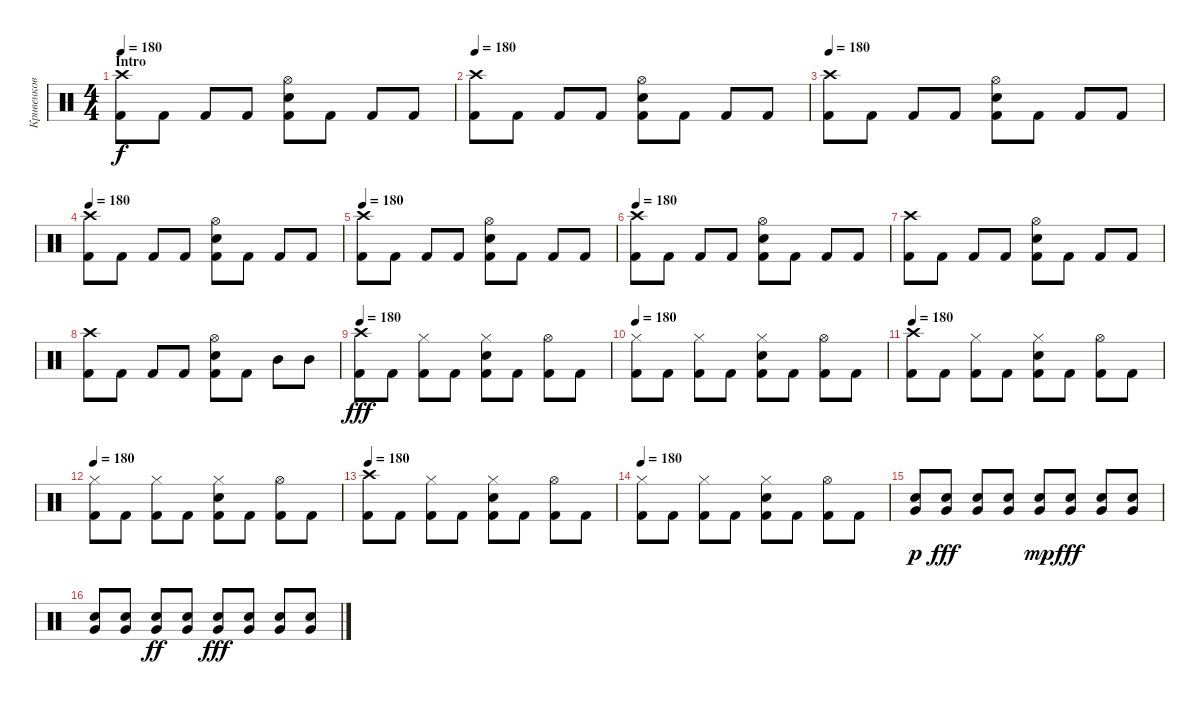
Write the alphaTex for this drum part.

\track ("Кривенков" "Кривенков") {instrument percussion}
\staff {score}
\articulation defaults
\ts (4 4)
\section ("" "Intro")
\tempo 180
\clef neutral
\ks c
("Crash high (hit)" "Kick (hit) 2").8{dy f} "Kick (hit) 2".8 "Kick (hit) 2".8 "Kick (hit) 2".8 ("Kick (hit) 2" "Snare (hit) 2" "Hi-Hat (open)").8 "Kick (hit) 2".8 "Kick (hit) 2".8 "Kick (hit) 2".8 |
\tempo 180
("Crash high (hit)" "Kick (hit) 2").8 "Kick (hit) 2".8 "Kick (hit) 2".8 "Kick (hit) 2".8 ("Kick (hit) 2" "Snare (hit) 2" "Hi-Hat (open)").8 "Kick (hit) 2".8 "Kick (hit) 2".8 "Kick (hit) 2".8 |
\tempo 180
("Crash high (hit)" "Kick (hit) 2").8 "Kick (hit) 2".8 "Kick (hit) 2".8 "Kick (hit) 2".8 ("Kick (hit) 2" "Snare (hit) 2" "Hi-Hat (open)").8 "Kick (hit) 2".8 "Kick (hit) 2".8 "Kick (hit) 2".8 |
\tempo 180
("Crash high (hit)" "Kick (hit) 2").8 "Kick (hit) 2".8 "Kick (hit) 2".8 "Kick (hit) 2".8 ("Kick (hit) 2" "Snare (hit) 2" "Hi-Hat (open)").8 "Kick (hit) 2".8 "Kick (hit) 2".8 "Kick (hit) 2".8 |
\tempo 180
("Crash high (hit)" "Kick (hit) 2").8 "Kick (hit) 2".8 "Kick (hit) 2".8 "Kick (hit) 2".8 ("Kick (hit) 2" "Snare (hit) 2" "Hi-Hat (open)").8 "Kick (hit) 2".8 "Kick (hit) 2".8 "Kick (hit) 2".8 |
\tempo 180
("Crash high (hit)" "Kick (hit) 2").8 "Kick (hit) 2".8 "Kick (hit) 2".8 "Kick (hit) 2".8 ("Kick (hit) 2" "Snare (hit) 2" "Hi-Hat (open)").8 "Kick (hit) 2".8 "Kick (hit) 2".8 "Kick (hit) 2".8 |
("Crash high (hit)" "Kick (hit) 2").8 "Kick (hit) 2".8 "Kick (hit) 2".8 "Kick (hit) 2".8 ("Kick (hit) 2" "Snare (hit) 2" "Hi-Hat (open)").8 "Kick (hit) 2".8 "Kick (hit) 2".8 "Kick (hit) 2".8 |
("Crash high (hit)" "Kick (hit) 2").8 "Kick (hit) 2".8 "Kick (hit) 2".8 "Kick (hit) 2".8 ("Kick (hit) 2" "Snare (hit) 2" "Hi-Hat (open)").8 "Kick (hit) 2".8 "Mid Tom (hit)".8 "Mid Tom (hit)".8 |
\tempo 180
("Crash high (hit)" "Kick (hit) 2").8{dy fff} "Kick (hit) 2".8 ("Kick (hit) 2" "Hi-Hat (closed)").8 "Kick (hit) 2".8 ("Hi-Hat (closed)" "Kick (hit) 2" "Snare (hit) 2").8 "Kick (hit) 2".8 ("Hi-Hat (open)" "Kick (hit) 2").8 "Kick (hit) 2".8 |
\tempo 180
("Kick (hit) 2" "Hi-Hat (closed)").8 "Kick (hit) 2".8 ("Hi-Hat (closed)" "Kick (hit) 2").8 "Kick (hit) 2".8 ("Snare (hit) 2" "Hi-Hat (closed)" "Kick (hit) 2").8 "Kick (hit) 2".8 ("Hi-Hat (open)" "Kick (hit) 2").8 "Kick (hit) 2".8 |
\tempo 180
("Kick (hit) 2" "Crash high (hit)").8 "Kick (hit) 2".8 ("Hi-Hat (closed)" "Kick (hit) 2").8 "Kick (hit) 2".8 ("Kick (hit) 2" "Snare (hit) 2" "Hi-Hat (closed)").8 "Kick (hit) 2".8 ("Kick (hit) 2" "Hi-Hat (open)").8 "Kick (hit) 2".8 |
\tempo 180
("Hi-Hat (closed)" "Kick (hit) 2").8 "Kick (hit) 2".8 ("Hi-Hat (closed)" "Kick (hit) 2").8 "Kick (hit) 2".8 ("Kick (hit) 2" "Snare (hit) 2" "Hi-Hat (closed)").8 "Kick (hit) 2".8 ("Kick (hit) 2" "Hi-Hat (open)").8 "Kick (hit) 2".8 |
\tempo 180
("Crash high (hit)" "Kick (hit) 2").8 "Kick (hit) 2".8 ("Hi-Hat (closed)" "Kick (hit) 2").8 "Kick (hit) 2".8 ("Hi-Hat (closed)" "Kick (hit) 2" "Snare (hit) 2").8 "Kick (hit) 2".8 ("Hi-Hat (open)" "Kick (hit) 2").8 "Kick (hit) 2".8 |
\tempo 180
("Kick (hit) 2" "Hi-Hat (closed)").8 "Kick (hit) 2".8 ("Kick (hit) 2" "Hi-Hat (closed)").8 "Kick (hit) 2".8 ("Kick (hit) 2" "Snare (hit) 2" "Hi-Hat (closed)").8 "Kick (hit) 2".8 ("Hi-Hat (open)" "Kick (hit) 2").8 "Kick (hit) 2".8 |
("Snare (hit) 2" "Very Low Tom (hit)").8{dy p} ("Very Low Tom (hit)" "Snare (hit) 2").8{dy fff} ("Very Low Tom (hit)" "Snare (hit) 2").8 ("Very Low Tom (hit)" "Snare (hit) 2").8 ("Snare (hit) 2" "Very Low Tom (hit)").8{dy mp} ("Very Low Tom (hit)" "Snare (hit) 2").8{dy fff} ("Very Low Tom (hit)" "Snare (hit) 2").8 ("Very Low Tom (hit)" "Snare (hit) 2").8 |
("Very Low Tom (hit)" "Snare (hit) 2").8 ("Snare (hit) 2" "Very Low Tom (hit)").8 ("Snare (hit) 2" "Very Low Tom (hit)").8{dy ff} ("Snare (hit) 2" "Very Low Tom (hit)").8 ("Very Low Tom (hit)" "Snare (hit) 2").8{dy fff} ("Snare (hit) 2" "Very Low Tom (hit)").8 ("Very Low Tom (hit)" "Snare (hit) 2").8 ("Very Low Tom (hit)" "Snare (hit) 2").8
